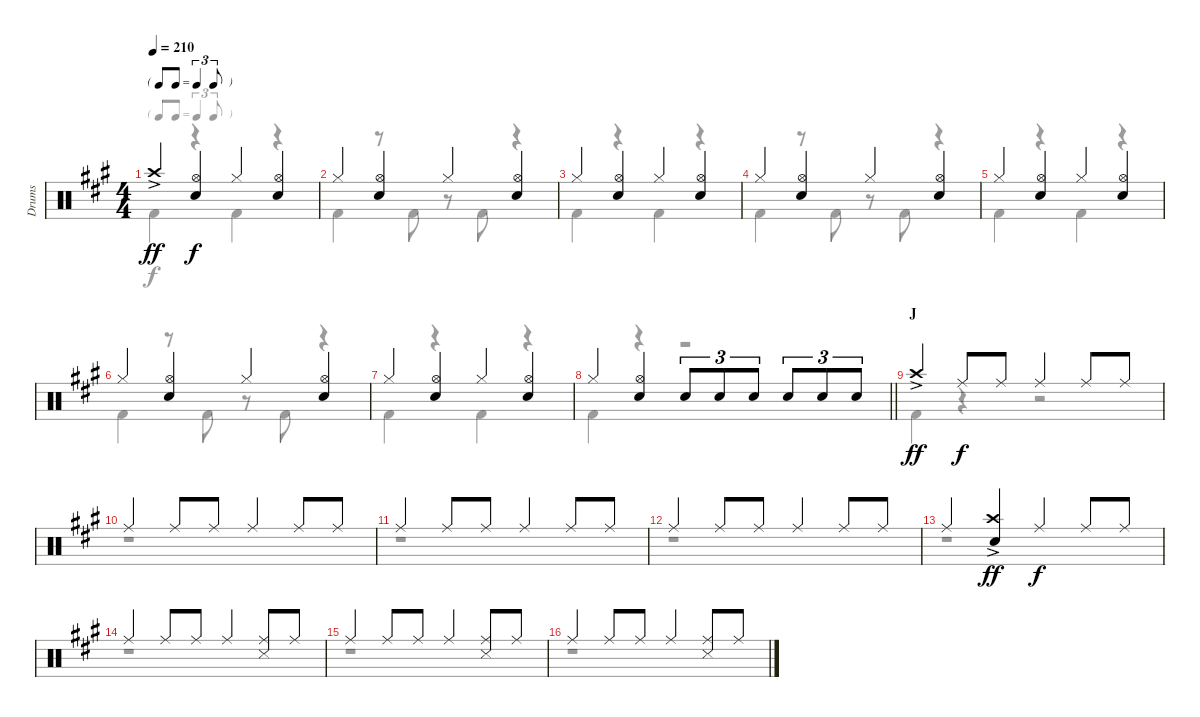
\track ("Drums" "Drums") {instrument percussion}
\staff {score}
\articulation defaults
\voice
\ts (4 4)
\tf triplet8th
\tempo 210
\clef neutral
\ks a "Crash high (hit)"{ac}.4{dy ff}
("Hi-Hat (open)" "Snare (hit) 2").4{dy f} "Hi-Hat (closed)".4 ("Hi-Hat (open)" "Snare (hit) 2").4 |
"Hi-Hat (closed)".4 ("Hi-Hat (open)" "Snare (hit) 2").4 "Hi-Hat (closed)".4 ("Hi-Hat (open)" "Snare (hit) 2").4 |
"Hi-Hat (closed)".4 ("Hi-Hat (open)" "Snare (hit) 2").4 "Hi-Hat (closed)".4 ("Hi-Hat (open)" "Snare (hit) 2").4 |
"Hi-Hat (closed)".4 ("Hi-Hat (open)" "Snare (hit) 2").4 "Hi-Hat (closed)".4 ("Hi-Hat (open)" "Snare (hit) 2").4 |
"Hi-Hat (closed)".4 ("Hi-Hat (open)" "Snare (hit) 2").4 "Hi-Hat (closed)".4 ("Hi-Hat (open)" "Snare (hit) 2").4 |
"Hi-Hat (closed)".4 ("Hi-Hat (open)" "Snare (hit) 2").4 "Hi-Hat (closed)".4 ("Hi-Hat (open)" "Snare (hit) 2").4 |
"Hi-Hat (closed)".4 ("Hi-Hat (open)" "Snare (hit) 2").4 "Hi-Hat (closed)".4 ("Hi-Hat (open)" "Snare (hit) 2").4 |
\barLineRight lightlight "Hi-Hat (closed)".4
("Hi-Hat (open)" "Snare (hit) 2").4 "Snare (hit) 2".8{tu (3 2)} "Snare (hit) 2".8{tu (3 2)} "Snare (hit) 2".8{tu (3 2)} "Snare (hit) 2".8{tu (3 2)} "Snare (hit) 2".8{tu (3 2)} "Snare (hit) 2".8{tu (3 2)} |
\section ("" "J")
"Crash high (hit)"{ac}.4{dy ff} "Ride (middle)".8{dy f} "Ride (middle)".8 "Ride (middle)".4 "Ride (middle)".8 "Ride (middle)".8 |
"Ride (middle)".4 "Ride (middle)".8 "Ride (middle)".8 "Ride (middle)".4 "Ride (middle)".8 "Ride (middle)".8 |
"Ride (middle)".4 "Ride (middle)".8 "Ride (middle)".8 "Ride (middle)".4 "Ride (middle)".8 "Ride (middle)".8 |
"Ride (middle)".4 "Ride (middle)".8 "Ride (middle)".8 "Ride (middle)".4 "Ride (middle)".8 "Ride (middle)".8 |
"Ride (middle)".4 ("Crash high (hit)"{ac} "Snare (hit) 2").4{dy ff} "Ride (middle)".4{dy f} "Ride (middle)".8 "Ride (middle)".8 |
"Ride (middle)".4 "Ride (middle)".8 "Ride (middle)".8 "Ride (middle)".4 ("Ride (middle)" "Snare (side stick) 3").8 "Ride (middle)".8 |
"Ride (middle)".4 "Ride (middle)".8 "Ride (middle)".8 "Ride (middle)".4 ("Ride (middle)" "Snare (side stick) 3").8 "Ride (middle)".8 |
"Ride (middle)".4 "Ride (middle)".8 "Ride (middle)".8 "Ride (middle)".4 ("Ride (middle)" "Snare (side stick) 3").8 "Ride (middle)".8
\voice
\clef neutral
\ottava regular
\simile none
\ks a "Kick (hit) 2".4{dy f}
r.4 "Kick (hit) 2".4 r.4 |
"Kick (hit) 2".4 r.8 "Kick (hit) 2".8 r.8 "Kick (hit) 2".8 r.4 |
"Kick (hit) 2".4 r.4 "Kick (hit) 2".4 r.4 |
"Kick (hit) 2".4 r.8 "Kick (hit) 2".8 r.8 "Kick (hit) 2".8 r.4 |
"Kick (hit) 2".4 r.4 "Kick (hit) 2".4 r.4 |
"Kick (hit) 2".4 r.8 "Kick (hit) 2".8 r.8 "Kick (hit) 2".8 r.4 |
"Kick (hit) 2".4 r.4 "Kick (hit) 2".4 r.4 |
\barLineRight lightlight "Kick (hit) 2".4
r.4 r.2 |
"Kick (hit) 2".4 r.4 r.2 |
r.1 |
r.1 |
r.1 |
r.1 |
r.1 |
r.1 |
r.1
